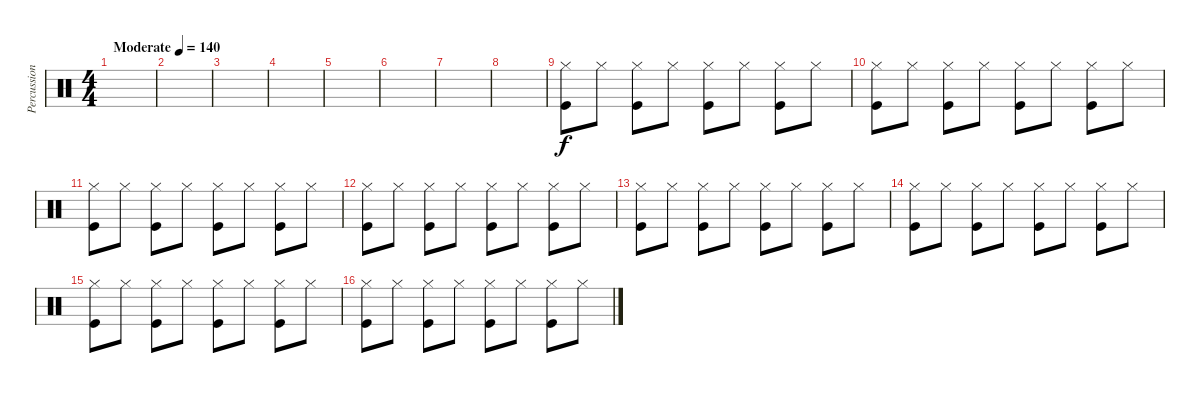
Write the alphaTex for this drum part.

\track ("Percussion" "Percussion") {instrument percussion}
\staff {score}
\articulation defaults
\ts (4 4)
\tempo (140 "Moderate")
\clef neutral
\ks c
|
|
|
|
|
|
|
|
("Hi-Hat (closed)" "Kick (hit)").8 "Hi-Hat (closed)".8 ("Hi-Hat (closed)" "Kick (hit)").8 "Hi-Hat (closed)".8 ("Hi-Hat (closed)" "Kick (hit)").8 "Hi-Hat (closed)".8 ("Hi-Hat (closed)" "Kick (hit)").8 "Hi-Hat (closed)".8 |
("Hi-Hat (closed)" "Kick (hit)").8 "Hi-Hat (closed)".8 ("Hi-Hat (closed)" "Kick (hit)").8 "Hi-Hat (closed)".8 ("Hi-Hat (closed)" "Kick (hit)").8 "Hi-Hat (closed)".8 ("Hi-Hat (closed)" "Kick (hit)").8 "Hi-Hat (closed)".8 |
("Hi-Hat (closed)" "Kick (hit)").8 "Hi-Hat (closed)".8 ("Hi-Hat (closed)" "Kick (hit)").8 "Hi-Hat (closed)".8 ("Hi-Hat (closed)" "Kick (hit)").8 "Hi-Hat (closed)".8 ("Hi-Hat (closed)" "Kick (hit)").8 "Hi-Hat (closed)".8 |
("Hi-Hat (closed)" "Kick (hit)").8 "Hi-Hat (closed)".8 ("Hi-Hat (closed)" "Kick (hit)").8 "Hi-Hat (closed)".8 ("Hi-Hat (closed)" "Kick (hit)").8 "Hi-Hat (closed)".8 ("Hi-Hat (closed)" "Kick (hit)").8 "Hi-Hat (closed)".8 |
("Hi-Hat (closed)" "Kick (hit)").8 "Hi-Hat (closed)".8 ("Hi-Hat (closed)" "Kick (hit)").8 "Hi-Hat (closed)".8 ("Hi-Hat (closed)" "Kick (hit)").8 "Hi-Hat (closed)".8 ("Hi-Hat (closed)" "Kick (hit)").8 "Hi-Hat (closed)".8 |
("Hi-Hat (closed)" "Kick (hit)").8 "Hi-Hat (closed)".8 ("Hi-Hat (closed)" "Kick (hit)").8 "Hi-Hat (closed)".8 ("Hi-Hat (closed)" "Kick (hit)").8 "Hi-Hat (closed)".8 ("Hi-Hat (closed)" "Kick (hit)").8 "Hi-Hat (closed)".8 |
("Hi-Hat (closed)" "Kick (hit)").8 "Hi-Hat (closed)".8 ("Hi-Hat (closed)" "Kick (hit)").8 "Hi-Hat (closed)".8 ("Hi-Hat (closed)" "Kick (hit)").8 "Hi-Hat (closed)".8 ("Hi-Hat (closed)" "Kick (hit)").8 "Hi-Hat (closed)".8 |
("Hi-Hat (closed)" "Kick (hit)").8 "Hi-Hat (closed)".8 ("Hi-Hat (closed)" "Kick (hit)").8 "Hi-Hat (closed)".8 ("Hi-Hat (closed)" "Kick (hit)").8 "Hi-Hat (closed)".8 ("Hi-Hat (closed)" "Kick (hit)").8 "Hi-Hat (closed)".8
